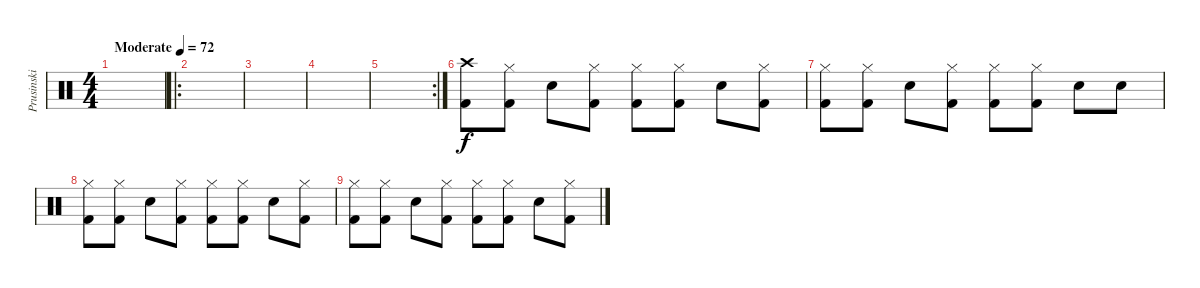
\track ("Prusinski" "Prusinski") {instrument percussion}
\staff {score}
\articulation defaults
\ts (4 4)
\tempo (72 "Moderate")
\clef neutral
\ks c
|
\ro
|
|
|
\rc 2
|
("Crash high (hit)" "Kick (hit) 2").8 ("Hi-Hat (closed)" "Kick (hit) 2").8 "Snare (hit) 2".8 ("Hi-Hat (closed)" "Kick (hit) 2").8 ("Hi-Hat (closed)" "Kick (hit) 2").8 ("Hi-Hat (closed)" "Kick (hit) 2").8 "Snare (hit) 2".8 ("Hi-Hat (closed)" "Kick (hit) 2").8 |
("Hi-Hat (closed)" "Kick (hit) 2").8 ("Hi-Hat (closed)" "Kick (hit) 2").8 "Snare (hit) 2".8 ("Hi-Hat (closed)" "Kick (hit) 2").8 ("Hi-Hat (closed)" "Kick (hit) 2").8 ("Hi-Hat (closed)" "Kick (hit) 2").8 "Snare (hit) 2".8 "Snare (hit) 2".8 |
("Hi-Hat (closed)" "Kick (hit) 2").8 ("Hi-Hat (closed)" "Kick (hit) 2").8 "Snare (hit) 2".8 ("Hi-Hat (closed)" "Kick (hit) 2").8 ("Hi-Hat (closed)" "Kick (hit) 2").8 ("Hi-Hat (closed)" "Kick (hit) 2").8 "Snare (hit) 2".8 ("Hi-Hat (closed)" "Kick (hit) 2").8 |
("Hi-Hat (closed)" "Kick (hit) 2").8 ("Hi-Hat (closed)" "Kick (hit) 2").8 "Snare (hit) 2".8 ("Hi-Hat (closed)" "Kick (hit) 2").8 ("Hi-Hat (closed)" "Kick (hit) 2").8 ("Hi-Hat (closed)" "Kick (hit) 2").8 "Snare (hit) 2".8 ("Hi-Hat (closed)" "Kick (hit) 2").8
